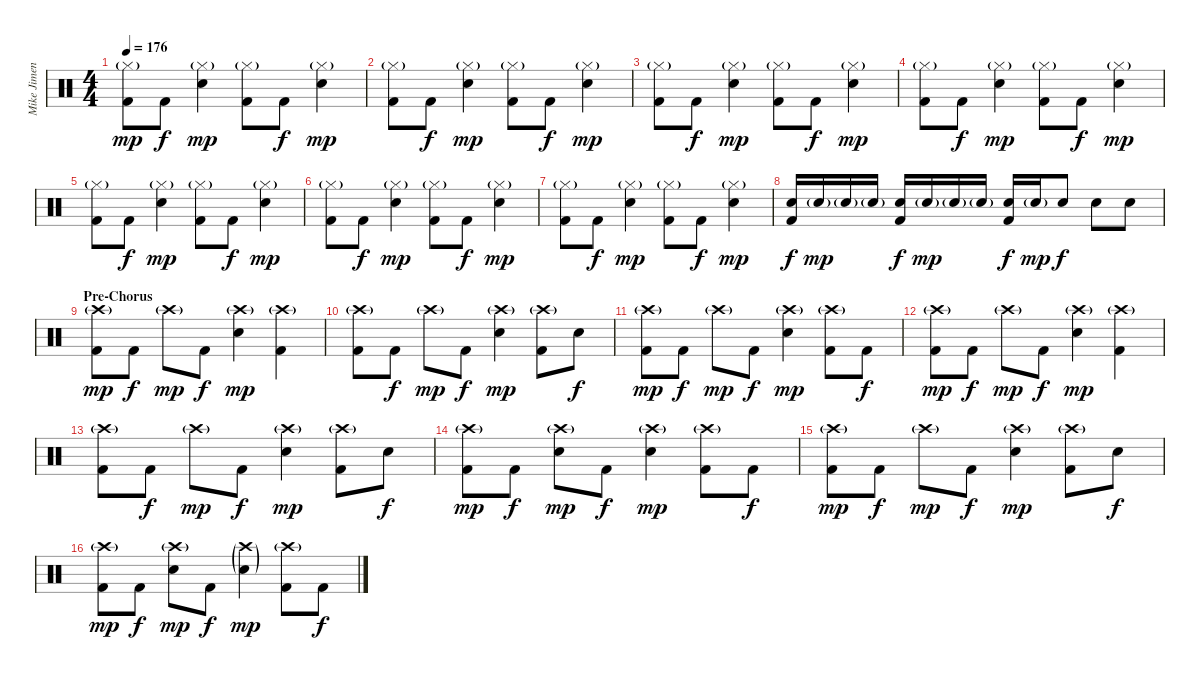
\track ("Mike Jimenez" "Mike Jimen") {instrument percussion}
\staff {score}
\articulation defaults
\ts (4 4)
\tempo 176
\clef neutral
\ks c
("Hi-Hat (closed)"{g} "Kick (hit) 2").8{dy mp} "Kick (hit) 2".8{dy f} ("Hi-Hat (closed)"{g} "Electric Snare (hit)").4{dy mp} ("Hi-Hat (closed)"{g} "Kick (hit) 2").8 "Kick (hit) 2".8{dy f} ("Hi-Hat (closed)"{g} "Electric Snare (hit)").4{dy mp} |
("Hi-Hat (closed)"{g} "Kick (hit) 2").8 "Kick (hit) 2".8{dy f} ("Hi-Hat (closed)"{g} "Electric Snare (hit)").4{dy mp} ("Hi-Hat (closed)"{g} "Kick (hit) 2").8 "Kick (hit) 2".8{dy f} ("Hi-Hat (closed)"{g} "Electric Snare (hit)").4{dy mp} |
("Hi-Hat (closed)"{g} "Kick (hit) 2").8 "Kick (hit) 2".8{dy f} ("Hi-Hat (closed)"{g} "Electric Snare (hit)").4{dy mp} ("Hi-Hat (closed)"{g} "Kick (hit) 2").8 "Kick (hit) 2".8{dy f} ("Hi-Hat (closed)"{g} "Electric Snare (hit)").4{dy mp} |
("Hi-Hat (closed)"{g} "Kick (hit) 2").8 "Kick (hit) 2".8{dy f} ("Hi-Hat (closed)"{g} "Electric Snare (hit)").4{dy mp} ("Hi-Hat (closed)"{g} "Kick (hit) 2").8 "Kick (hit) 2".8{dy f} ("Hi-Hat (closed)"{g} "Electric Snare (hit)").4{dy mp} |
("Hi-Hat (closed)"{g} "Kick (hit) 2").8 "Kick (hit) 2".8{dy f} ("Hi-Hat (closed)"{g} "Electric Snare (hit)").4{dy mp} ("Hi-Hat (closed)"{g} "Kick (hit) 2").8 "Kick (hit) 2".8{dy f} ("Hi-Hat (closed)"{g} "Electric Snare (hit)").4{dy mp} |
("Hi-Hat (closed)"{g} "Kick (hit) 2").8 "Kick (hit) 2".8{dy f} ("Hi-Hat (closed)"{g} "Electric Snare (hit)").4{dy mp} ("Hi-Hat (closed)"{g} "Kick (hit) 2").8 "Kick (hit) 2".8{dy f} ("Hi-Hat (closed)"{g} "Electric Snare (hit)").4{dy mp} |
("Hi-Hat (closed)"{g} "Kick (hit) 2").8 "Kick (hit) 2".8{dy f} ("Hi-Hat (closed)"{g} "Electric Snare (hit)").4{dy mp} ("Hi-Hat (closed)"{g} "Kick (hit) 2").8 "Kick (hit) 2".8{dy f} ("Hi-Hat (closed)"{g} "Electric Snare (hit)").4{dy mp} |
("Electric Snare (hit)" "Kick (hit) 2").16{dy f} "Electric Snare (hit)"{g}.16{dy mp} "Electric Snare (hit)"{g}.16 "Electric Snare (hit)"{g}.16 ("Electric Snare (hit)" "Kick (hit) 2").16{dy f} "Electric Snare (hit)"{g}.16{dy mp} "Electric Snare (hit)"{g}.16 "Electric Snare (hit)"{g}.16 ("Electric Snare (hit)" "Kick (hit) 2").16{dy f} "Electric Snare (hit)"{g}.16{dy mp} "Electric Snare (hit)".8{dy f} "Electric Snare (hit)".8 "Electric Snare (hit)".8 |
\section ("" "Pre-Chorus")
("Crash high (hit)"{g} "Kick (hit) 2").8{dy mp} "Kick (hit) 2".8{dy f} "Crash high (hit)"{g}.8{dy mp} "Kick (hit) 2".8{dy f} ("Crash high (hit)"{g} "Electric Snare (hit)").4{dy mp} ("Crash high (hit)"{g} "Kick (hit) 2").4 |
("Crash high (hit)"{g} "Kick (hit) 2").8 "Kick (hit) 2".8{dy f} "Crash high (hit)"{g}.8{dy mp} "Kick (hit) 2".8{dy f} ("Crash high (hit)"{g} "Electric Snare (hit)").4{dy mp} ("Crash high (hit)"{g} "Kick (hit) 2").8 "Electric Snare (hit)".8{dy f} |
("Crash high (hit)"{g} "Kick (hit) 2").8{dy mp} "Kick (hit) 2".8{dy f} "Crash high (hit)"{g}.8{dy mp} "Kick (hit) 2".8{dy f} ("Crash high (hit)"{g} "Electric Snare (hit)").4{dy mp} ("Crash high (hit)"{g} "Kick (hit) 2").8 "Kick (hit) 2".8{dy f} |
("Crash high (hit)"{g} "Kick (hit) 2").8{dy mp} "Kick (hit) 2".8{dy f} "Crash high (hit)"{g}.8{dy mp} "Kick (hit) 2".8{dy f} ("Crash high (hit)"{g} "Electric Snare (hit)").4{dy mp} ("Crash high (hit)"{g} "Kick (hit) 2").4 |
("Crash high (hit)"{g} "Kick (hit) 2").8 "Kick (hit) 2".8{dy f} "Crash high (hit)"{g}.8{dy mp} "Kick (hit) 2".8{dy f} ("Crash high (hit)"{g} "Electric Snare (hit)").4{dy mp} ("Crash high (hit)"{g} "Kick (hit) 2").8 "Electric Snare (hit)".8{dy f} |
("Crash high (hit)"{g} "Kick (hit) 2").8{dy mp} "Kick (hit) 2".8{dy f} ("Crash high (hit)"{g} "Electric Snare (hit)").8{dy mp} "Kick (hit) 2".8{dy f} ("Crash high (hit)"{g} "Electric Snare (hit)").4{dy mp} ("Crash high (hit)"{g} "Kick (hit) 2").8 "Kick (hit) 2".8{dy f} |
("Crash high (hit)"{g} "Kick (hit) 2").8{dy mp} "Kick (hit) 2".8{dy f} "Crash high (hit)"{g}.8{dy mp} "Kick (hit) 2".8{dy f} ("Crash high (hit)"{g} "Electric Snare (hit)").4{dy mp} ("Crash high (hit)"{g} "Kick (hit) 2").8 "Electric Snare (hit)".8{dy f} |
("Crash high (hit)"{g} "Kick (hit) 2").8{dy mp} "Kick (hit) 2".8{dy f} ("Crash high (hit)"{g} "Electric Snare (hit)").8{dy mp} "Kick (hit) 2".8{dy f} ("Crash high (hit)"{g} "Electric Snare (hit)"{g}).4{dy mp} ("Crash high (hit)"{g} "Kick (hit) 2").8 "Kick (hit) 2".8{dy f}
